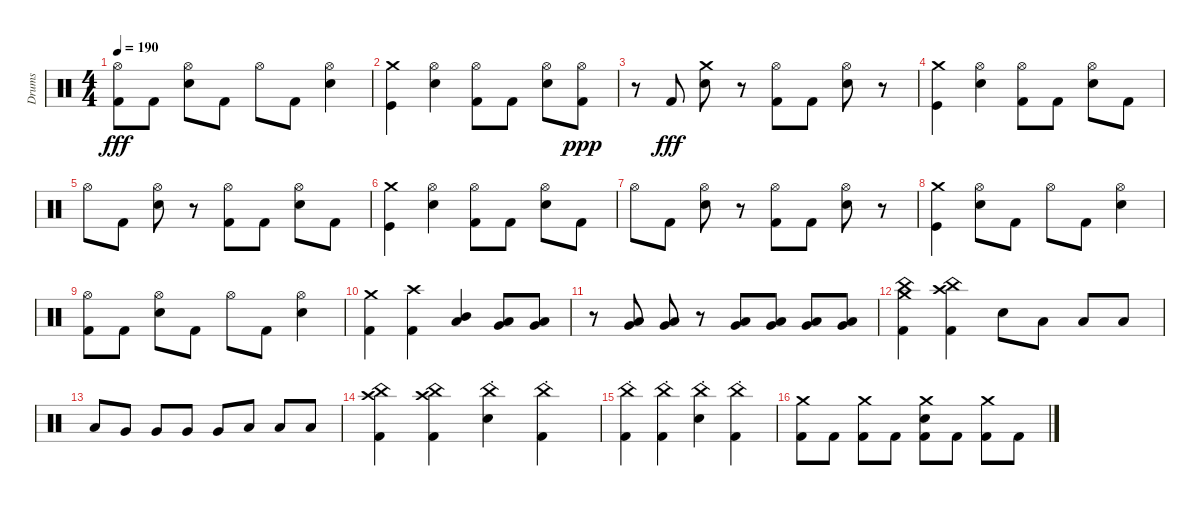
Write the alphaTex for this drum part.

\track ("Drums" "Drums") {instrument percussion}
\staff {score}
\articulation defaults
\ts (4 4)
\tempo 190
\clef neutral
\ks c
("Hi-Hat (open)" "Kick (hit) 2").8{dy fff} "Kick (hit) 2".8 ("Hi-Hat (open)" "Electric Snare (hit)").8 "Kick (hit) 2".8 "Hi-Hat (open)".8 "Kick (hit) 2".8 ("Hi-Hat (open)" "Electric Snare (hit)").4 |
("Crash medium (hit)" "Kick (hit)").4 ("Electric Snare (hit)" "Hi-Hat (open)").4 ("Kick (hit) 2" "Hi-Hat (open)").8 "Kick (hit) 2".8 ("Electric Snare (hit)" "Hi-Hat (open)").8 ("Kick (hit) 2" "Hi-Hat (open)").8{dy ppp} |
r.8 "Kick (hit) 2".8{dy fff} ("Electric Snare (hit)" "Crash medium (hit)").8 r.8 ("Kick (hit) 2" "Hi-Hat (open)").8 "Kick (hit) 2".8 ("Hi-Hat (open)" "Electric Snare (hit)").8 r.8 |
("Crash medium (hit)" "Kick (hit)").4 ("Electric Snare (hit)" "Hi-Hat (open)").4 ("Kick (hit) 2" "Hi-Hat (open)").8 "Kick (hit) 2".8 ("Electric Snare (hit)" "Hi-Hat (open)").8 "Kick (hit) 2".8 |
"Hi-Hat (open)".8 "Kick (hit) 2".8 ("Electric Snare (hit)" "Hi-Hat (open)").8 r.8 ("Kick (hit) 2" "Hi-Hat (open)").8 "Kick (hit) 2".8 ("Hi-Hat (open)" "Electric Snare (hit)").8 "Kick (hit) 2".8 |
("Crash medium (hit)" "Kick (hit)").4 ("Electric Snare (hit)" "Hi-Hat (open)").4 ("Kick (hit) 2" "Hi-Hat (open)").8 "Kick (hit) 2".8 ("Electric Snare (hit)" "Hi-Hat (open)").8 "Kick (hit) 2".8 |
"Hi-Hat (open)".8 "Kick (hit) 2".8 ("Electric Snare (hit)" "Hi-Hat (open)").8 r.8 ("Kick (hit) 2" "Hi-Hat (open)").8 "Kick (hit) 2".8 ("Hi-Hat (open)" "Electric Snare (hit)").8 r.8 |
("Crash medium (hit)" "Kick (hit)").4 ("Electric Snare (hit)" "Hi-Hat (open)").8 "Kick (hit) 2".8 "Hi-Hat (open)".8 "Kick (hit) 2".8 ("Hi-Hat (open)" "Electric Snare (hit)").4 |
("Hi-Hat (open)" "Kick (hit) 2").8 "Kick (hit) 2".8 ("Hi-Hat (open)" "Electric Snare (hit)").8 "Kick (hit) 2".8 "Hi-Hat (open)".8 "Kick (hit) 2".8 ("Hi-Hat (open)" "Electric Snare (hit)").4 |
("Kick (hit) 2" "Crash medium (hit)").4 ("Crash high (hit)" "Kick (hit) 2").4 ("Mid Tom (hit)" "Low Tom (hit)").4 ("Very Low Tom (hit)" "Low Tom (hit)").8 ("Very Low Tom (hit)" "Low Tom (hit)").8 |
r.8 ("Low Tom (hit)" "Very Low Tom (hit)").8 ("Low Tom (hit)" "Very Low Tom (hit)").8 r.8 ("Very Low Tom (hit)" "Low Floor Tom (hit)").8 ("Very Low Tom (hit)" "Low Floor Tom (hit)").8 ("Very Low Tom (hit)" "Low Floor Tom (hit)").8 ("Very Low Tom (hit)" "Low Floor Tom (hit)").8 |
("Crash medium (hit)" "Kick (hit) 2" "China (hit)").4 ("Crash high (hit)" "Kick (hit) 2" "China (hit)").4 "Electric Snare (hit)".8 "Low Tom (hit)".8 "Low Tom (hit)".8 "Low Tom (hit)".8 |
"Low Tom (hit)".8 "Very Low Tom (hit)".8 "Very Low Tom (hit)".8 "Very Low Tom (hit)".8 "Very Low Tom (hit)".8 "Low Floor Tom (hit)".8 "Low Floor Tom (hit)".8 "Low Floor Tom (hit)".8 |
("Crash high (hit)" "Kick (hit) 2" "China (hit)").4 ("Kick (hit) 2" "Crash high (hit)" "China (hit)").4 ("Electric Snare (hit)" "China (hit)"{st}).4 ("China (hit)"{st} "Kick (hit) 2").4 |
("China (hit)"{st} "Kick (hit) 2").4 ("China (hit)"{st} "Kick (hit) 2").4 ("China (hit)"{st} "Electric Snare (hit)").4 ("China (hit)"{st} "Kick (hit) 2").4 |
("Kick (hit) 2" "Crash medium (hit)").8 "Kick (hit) 2".8 ("Kick (hit) 2" "Crash medium (hit)").8 "Kick (hit) 2".8 ("Kick (hit) 2" "Crash medium (hit)" "Electric Snare (hit)").8 "Kick (hit) 2".8 ("Kick (hit) 2" "Crash medium (hit)").8 "Kick (hit) 2".8
